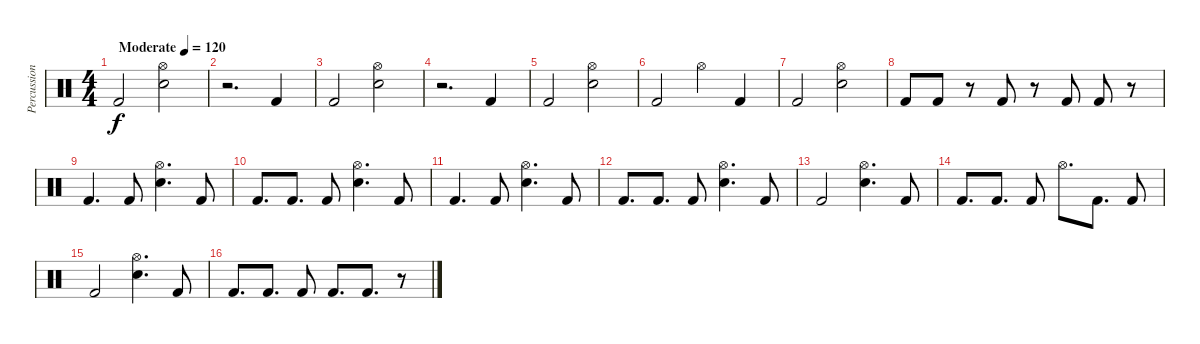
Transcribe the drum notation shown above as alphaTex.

\track ("Percussions" "Percussion") {instrument percussion}
\staff {score}
\articulation defaults
\ts (4 4)
\tempo (120 "Moderate")
\clef neutral
\ks c "Kick (hit) 2".2{dy f}
("Hi-Hat (open)" "Snare (hit) 2").2 |
r.2{d} "Kick (hit) 2".4 |
"Kick (hit) 2".2 ("Hi-Hat (open)" "Snare (hit) 2").2 |
r.2{d} "Kick (hit) 2".4 |
"Kick (hit) 2".2 ("Hi-Hat (open)" "Snare (hit) 2").2 |
"Kick (hit) 2".2 "Hi-Hat (open)".4 "Kick (hit) 2".4 |
"Kick (hit) 2".2 ("Hi-Hat (open)" "Snare (hit) 2").2 |
"Kick (hit) 2".8 "Kick (hit) 2".8 r.8 "Kick (hit) 2".8 r.8 "Kick (hit) 2".8 "Kick (hit) 2".8 r.8 |
"Kick (hit) 2".4{d} "Kick (hit) 2".8 ("Hi-Hat (open)" "Snare (hit) 2").4{d} "Kick (hit) 2".8 |
"Kick (hit) 2".8{d} "Kick (hit) 2".8{d} "Kick (hit) 2".8 ("Hi-Hat (open)" "Snare (hit) 2").4{d} "Kick (hit) 2".8 |
"Kick (hit) 2".4{d} "Kick (hit) 2".8 ("Hi-Hat (open)" "Snare (hit) 2").4{d} "Kick (hit) 2".8 |
"Kick (hit) 2".8{d} "Kick (hit) 2".8{d} "Kick (hit) 2".8 ("Hi-Hat (open)" "Snare (hit) 2").4{d} "Kick (hit) 2".8 |
"Kick (hit) 2".2 ("Hi-Hat (open)" "Snare (hit) 2").4{d} "Kick (hit) 2".8 |
"Kick (hit) 2".8{d} "Kick (hit) 2".8{d} "Kick (hit) 2".8 "Hi-Hat (open)".8{d} "Kick (hit) 2".8{d} "Kick (hit) 2".8 |
"Kick (hit) 2".2 ("Hi-Hat (open)" "Snare (hit) 2").4{d} "Kick (hit) 2".8 |
"Kick (hit) 2".8{d} "Kick (hit) 2".8{d} "Kick (hit) 2".8 "Kick (hit) 2".8{d} "Kick (hit) 2".8{d} r.8
